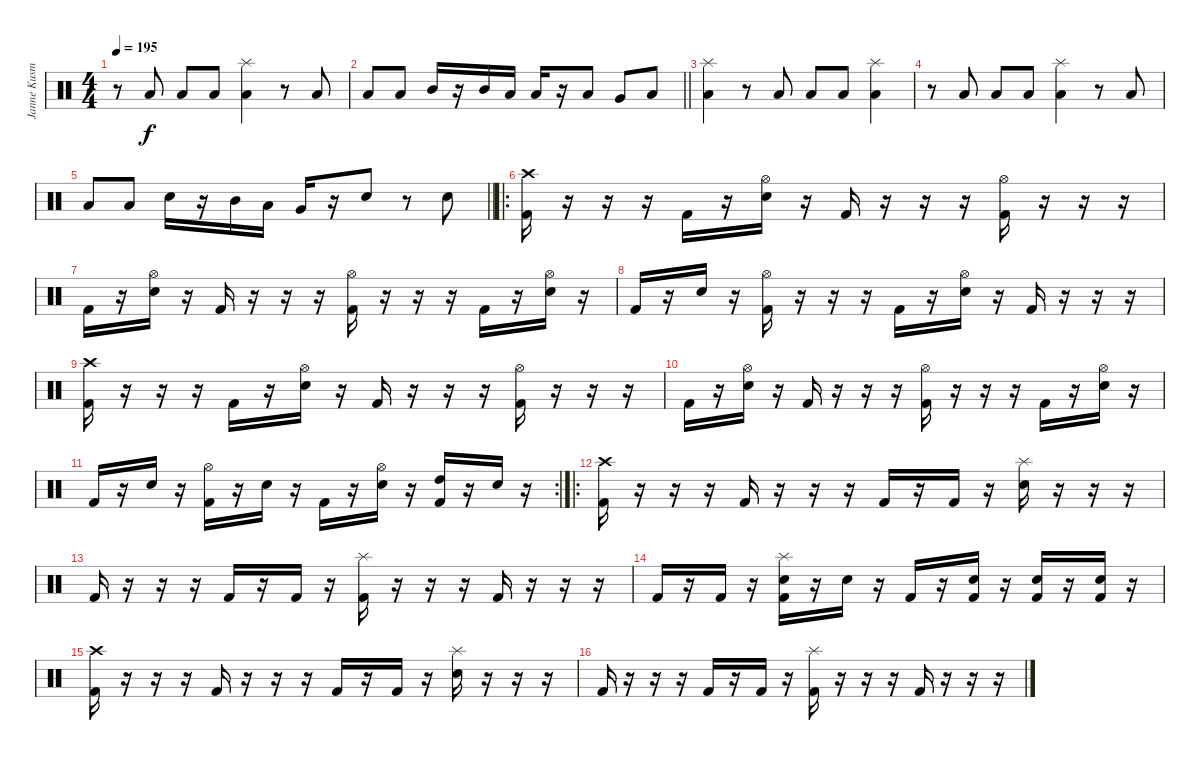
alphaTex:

\track ("Janne Kusmin" "Janne Kusm") {instrument percussion}
\staff {score}
\articulation defaults
\ts (4 4)
\tempo 195
\clef neutral
\ks c
r.8{dy f} "Low Floor Tom (hit)".8 "Low Floor Tom (hit)".8 "Low Floor Tom (hit)".8 ("Splash (hit)" "Low Floor Tom (hit)").4 r.8 "Low Floor Tom (hit)".8 |
\barLineRight lightlight "Low Floor Tom (hit)".8 "Low Floor Tom (hit)".8 "Mid Tom (hit)".16
r.16 "Mid Tom (hit)".16 "Low Tom (hit)".16 "Low Tom (hit)".16 r.16 "Low Tom (hit)".8 "Very Low Tom (hit)".8 "Low Floor Tom (hit)".8 |
("Splash (hit)" "Low Floor Tom (hit)").4 r.8 "Low Floor Tom (hit)".8 "Low Floor Tom (hit)".8 "Low Floor Tom (hit)".8 ("Splash (hit)" "Low Floor Tom (hit)").4 |
r.8 "Low Floor Tom (hit)".8 "Low Floor Tom (hit)".8 "Low Floor Tom (hit)".8 ("Splash (hit)" "Low Floor Tom (hit)").4 r.8 "Low Floor Tom (hit)".8 |
\barLineRight lightlight "Low Floor Tom (hit)".8 "Low Floor Tom (hit)".8 "Snare (hit) 2".16
r.16 "Mid Tom (hit)".16 "Low Tom (hit)".16 "Very Low Tom (hit)".16 r.16 "Snare (hit) 2".8 r.8 "Snare (hit) 2".8 |
\ro
("Crash high (hit)" "Kick (hit) 2").16 r.16 r.16 r.16 "Kick (hit) 2".16 r.16 ("Hi-Hat (open)" "Snare (hit) 2").16 r.16 "Kick (hit) 2".16 r.16 r.16 r.16 ("Hi-Hat (open)" "Kick (hit) 2").16 r.16 r.16 r.16 |
"Kick (hit) 2".16 r.16 ("Hi-Hat (open)" "Snare (hit) 2").16 r.16 "Kick (hit) 2".16 r.16 r.16 r.16 ("Hi-Hat (open)" "Kick (hit) 2").16 r.16 r.16 r.16 "Kick (hit) 2".16 r.16 ("Hi-Hat (open)" "Snare (hit) 2").16 r.16 |
"Kick (hit) 2".16 r.16 "Snare (hit) 2".16 r.16 ("Hi-Hat (open)" "Kick (hit) 2").16 r.16 r.16 r.16 "Kick (hit) 2".16 r.16 ("Hi-Hat (open)" "Snare (hit) 2").16 r.16 "Kick (hit) 2".16 r.16 r.16 r.16 |
("Crash high (hit)" "Kick (hit) 2").16 r.16 r.16 r.16 "Kick (hit) 2".16 r.16 ("Hi-Hat (open)" "Snare (hit) 2").16 r.16 "Kick (hit) 2".16 r.16 r.16 r.16 ("Hi-Hat (open)" "Kick (hit) 2").16 r.16 r.16 r.16 |
"Kick (hit) 2".16 r.16 ("Hi-Hat (open)" "Snare (hit) 2").16 r.16 "Kick (hit) 2".16 r.16 r.16 r.16 ("Hi-Hat (open)" "Kick (hit) 2").16 r.16 r.16 r.16 "Kick (hit) 2".16 r.16 ("Hi-Hat (open)" "Snare (hit) 2").16 r.16 |
\rc 2 "Kick (hit) 2".16
r.16 "Snare (hit) 2".16 r.16 ("Hi-Hat (open)" "Kick (hit) 2").16 r.16 "Snare (hit) 2".16 r.16 "Kick (hit) 2".16 r.16 ("Hi-Hat (open)" "Snare (hit) 2").16 r.16 ("High Tom (hit)" "Kick (hit) 2").16 r.16 "Snare (hit) 2".16 r.16 |
\ro
("Crash high (hit)" "Kick (hit) 2").16 r.16 r.16 r.16 "Kick (hit) 2".16 r.16 r.16 r.16 "Kick (hit) 2".16 r.16 "Kick (hit) 2".16 r.16 ("Splash (hit)" "Snare (hit) 2").16 r.16 r.16 r.16 |
"Kick (hit) 2".16 r.16 r.16 r.16 "Kick (hit) 2".16 r.16 "Kick (hit) 2".16 r.16 ("Splash (hit)" "Kick (hit) 2").16 r.16 r.16 r.16 "Kick (hit) 2".16 r.16 r.16 r.16 |
"Kick (hit) 2".16 r.16 "Kick (hit) 2".16 r.16 ("Splash (hit)" "Snare (hit) 2" "Kick (hit) 2").16 r.16 "Snare (hit) 2".16 r.16 "Kick (hit) 2".16 r.16 ("Snare (hit) 2" "Kick (hit) 2").16 r.16 ("Snare (hit) 2" "Kick (hit) 2").16 r.16 ("Snare (hit) 2" "Kick (hit) 2").16 r.16 |
("Crash high (hit)" "Kick (hit) 2").16 r.16 r.16 r.16 "Kick (hit) 2".16 r.16 r.16 r.16 "Kick (hit) 2".16 r.16 "Kick (hit) 2".16 r.16 ("Splash (hit)" "Snare (hit) 2").16 r.16 r.16 r.16 |
"Kick (hit) 2".16 r.16 r.16 r.16 "Kick (hit) 2".16 r.16 "Kick (hit) 2".16 r.16 ("Splash (hit)" "Kick (hit) 2").16 r.16 r.16 r.16 "Kick (hit) 2".16 r.16 r.16 r.16
